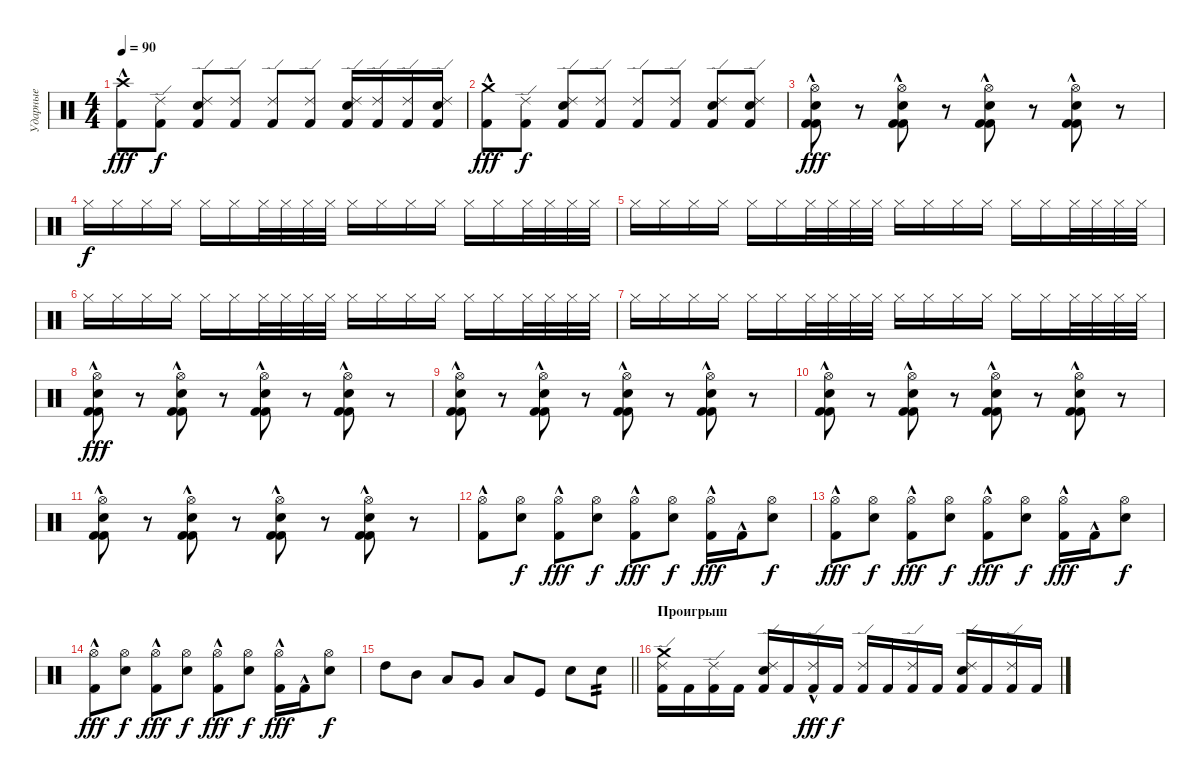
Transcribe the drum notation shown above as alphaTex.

\track ("Ударные" "Ударные") {instrument percussion}
\staff {score}
\articulation defaults
\ts (4 4)
\tempo 90
\clef neutral
\ks c
("Crash high (hit)" "Kick (hit) 2"{hac}).8{dy fff} ("Ride (edge) 2" "Kick (hit) 2").8{dy f} ("Ride (edge) 2" "Snare (hit) 2" "Kick (hit) 2").8 ("Ride (edge) 2" "Kick (hit) 2").8 ("Ride (edge) 2" "Kick (hit) 2").8 ("Ride (edge) 2" "Kick (hit) 2").8 ("Ride (edge) 2" "Snare (hit) 2" "Kick (hit) 2").16 ("Ride (edge) 2" "Kick (hit) 2").16 ("Ride (edge) 2" "Kick (hit) 2").16 ("Ride (edge) 2" "Snare (hit) 2" "Kick (hit) 2").16 |
("Crash medium (hit)" "Kick (hit) 2"{hac}).8{dy fff} ("Ride (edge) 2" "Kick (hit) 2").8{dy f} ("Ride (edge) 2" "Snare (hit) 2" "Kick (hit) 2").8 ("Ride (edge) 2" "Kick (hit) 2").8 ("Ride (edge) 2" "Kick (hit) 2").8 ("Ride (edge) 2" "Kick (hit) 2").8 ("Ride (edge) 2" "Snare (hit) 2" "Kick (hit) 2").8 ("Ride (edge) 2" "Snare (hit) 2" "Kick (hit) 2").8 |
("Hi-Hat (open)" "Kick (hit) 2"{hac} "Kick (hit) 2" "Snare (hit) 2").8{dy fff} r.8 ("Hi-Hat (open)" "Kick (hit) 2"{hac} "Kick (hit) 2" "Snare (hit) 2").8 r.8 ("Hi-Hat (open)" "Kick (hit) 2"{hac} "Kick (hit) 2" "Snare (hit) 2").8 r.8 ("Hi-Hat (open)" "Kick (hit) 2"{hac} "Kick (hit) 2" "Snare (hit) 2").8 r.8 |
"Hi-Hat (closed)".16{dy f} "Hi-Hat (closed)".16 "Hi-Hat (closed)".16 "Hi-Hat (closed)".16 "Hi-Hat (closed)".16 "Hi-Hat (closed)".16 "Hi-Hat (closed)".32 "Hi-Hat (closed)".32 "Hi-Hat (closed)".32 "Hi-Hat (closed)".32 "Hi-Hat (closed)".16 "Hi-Hat (closed)".16 "Hi-Hat (closed)".16 "Hi-Hat (closed)".16 "Hi-Hat (closed)".16 "Hi-Hat (closed)".16 "Hi-Hat (closed)".32 "Hi-Hat (closed)".32 "Hi-Hat (closed)".32 "Hi-Hat (closed)".32 |
"Hi-Hat (closed)".16 "Hi-Hat (closed)".16 "Hi-Hat (closed)".16 "Hi-Hat (closed)".16 "Hi-Hat (closed)".16 "Hi-Hat (closed)".16 "Hi-Hat (closed)".32 "Hi-Hat (closed)".32 "Hi-Hat (closed)".32 "Hi-Hat (closed)".32 "Hi-Hat (closed)".16 "Hi-Hat (closed)".16 "Hi-Hat (closed)".16 "Hi-Hat (closed)".16 "Hi-Hat (closed)".16 "Hi-Hat (closed)".16 "Hi-Hat (closed)".32 "Hi-Hat (closed)".32 "Hi-Hat (closed)".32 "Hi-Hat (closed)".32 |
"Hi-Hat (closed)".16 "Hi-Hat (closed)".16 "Hi-Hat (closed)".16 "Hi-Hat (closed)".16 "Hi-Hat (closed)".16 "Hi-Hat (closed)".16 "Hi-Hat (closed)".32 "Hi-Hat (closed)".32 "Hi-Hat (closed)".32 "Hi-Hat (closed)".32 "Hi-Hat (closed)".16 "Hi-Hat (closed)".16 "Hi-Hat (closed)".16 "Hi-Hat (closed)".16 "Hi-Hat (closed)".16 "Hi-Hat (closed)".16 "Hi-Hat (closed)".32 "Hi-Hat (closed)".32 "Hi-Hat (closed)".32 "Hi-Hat (closed)".32 |
"Hi-Hat (closed)".16 "Hi-Hat (closed)".16 "Hi-Hat (closed)".16 "Hi-Hat (closed)".16 "Hi-Hat (closed)".16 "Hi-Hat (closed)".16 "Hi-Hat (closed)".32 "Hi-Hat (closed)".32 "Hi-Hat (closed)".32 "Hi-Hat (closed)".32 "Hi-Hat (closed)".16 "Hi-Hat (closed)".16 "Hi-Hat (closed)".16 "Hi-Hat (closed)".16 "Hi-Hat (closed)".16 "Hi-Hat (closed)".16 "Hi-Hat (closed)".32 "Hi-Hat (closed)".32 "Hi-Hat (closed)".32 "Hi-Hat (closed)".32 |
("Hi-Hat (open)" "Kick (hit) 2"{hac} "Kick (hit) 2" "Snare (hit) 2").8{dy fff} r.8 ("Hi-Hat (open)" "Kick (hit) 2"{hac} "Kick (hit) 2" "Snare (hit) 2").8 r.8 ("Hi-Hat (open)" "Kick (hit) 2"{hac} "Kick (hit) 2" "Snare (hit) 2").8 r.8 ("Hi-Hat (open)" "Kick (hit) 2"{hac} "Kick (hit) 2" "Snare (hit) 2").8 r.8 |
("Hi-Hat (open)" "Kick (hit) 2"{hac} "Kick (hit) 2" "Snare (hit) 2").8 r.8 ("Hi-Hat (open)" "Kick (hit) 2"{hac} "Kick (hit) 2" "Snare (hit) 2").8 r.8 ("Hi-Hat (open)" "Kick (hit) 2"{hac} "Kick (hit) 2" "Snare (hit) 2").8 r.8 ("Hi-Hat (open)" "Kick (hit) 2"{hac} "Kick (hit) 2" "Snare (hit) 2").8 r.8 |
("Hi-Hat (open)" "Kick (hit) 2"{hac} "Kick (hit) 2" "Snare (hit) 2").8 r.8 ("Hi-Hat (open)" "Kick (hit) 2"{hac} "Kick (hit) 2" "Snare (hit) 2").8 r.8 ("Hi-Hat (open)" "Kick (hit) 2"{hac} "Kick (hit) 2" "Snare (hit) 2").8 r.8 ("Hi-Hat (open)" "Kick (hit) 2"{hac} "Kick (hit) 2" "Snare (hit) 2").8 r.8 |
("Hi-Hat (open)" "Kick (hit) 2"{hac} "Kick (hit) 2" "Snare (hit) 2").8 r.8 ("Hi-Hat (open)" "Kick (hit) 2"{hac} "Kick (hit) 2" "Snare (hit) 2").8 r.8 ("Hi-Hat (open)" "Kick (hit) 2"{hac} "Kick (hit) 2" "Snare (hit) 2").8 r.8 ("Hi-Hat (open)" "Kick (hit) 2"{hac} "Kick (hit) 2" "Snare (hit) 2").8 r.8 |
("Hi-Hat (open)" "Kick (hit) 2"{hac}).8 ("Hi-Hat (open)" "Snare (hit) 2").8{dy f} ("Hi-Hat (open)" "Kick (hit) 2"{hac}).8{dy fff} ("Hi-Hat (open)" "Snare (hit) 2").8{dy f} ("Hi-Hat (open)" "Kick (hit) 2"{hac}).8{dy fff} ("Hi-Hat (open)" "Snare (hit) 2").8{dy f} ("Hi-Hat (open)" "Kick (hit) 2"{hac}).16{dy fff} "Kick (hit) 2"{hac}.16 ("Hi-Hat (open)" "Snare (hit) 2").8{dy f} |
("Hi-Hat (open)" "Kick (hit) 2"{hac}).8{dy fff} ("Hi-Hat (open)" "Snare (hit) 2").8{dy f} ("Hi-Hat (open)" "Kick (hit) 2"{hac}).8{dy fff} ("Hi-Hat (open)" "Snare (hit) 2").8{dy f} ("Hi-Hat (open)" "Kick (hit) 2"{hac}).8{dy fff} ("Hi-Hat (open)" "Snare (hit) 2").8{dy f} ("Hi-Hat (open)" "Kick (hit) 2"{hac}).16{dy fff} "Kick (hit) 2"{hac}.16 ("Hi-Hat (open)" "Snare (hit) 2").8{dy f} |
("Hi-Hat (open)" "Kick (hit) 2"{hac}).8{dy fff} ("Hi-Hat (open)" "Snare (hit) 2").8{dy f} ("Hi-Hat (open)" "Kick (hit) 2"{hac}).8{dy fff} ("Hi-Hat (open)" "Snare (hit) 2").8{dy f} ("Hi-Hat (open)" "Kick (hit) 2"{hac}).8{dy fff} ("Hi-Hat (open)" "Snare (hit) 2").8{dy f} ("Hi-Hat (open)" "Kick (hit) 2"{hac}).16{dy fff} "Kick (hit) 2"{hac}.16 ("Hi-Hat (open)" "Snare (hit) 2").8{dy f} |
\barLineRight lightlight "High Tom (hit)".8 "Mid Tom (hit)".8 "Low Tom (hit)".8 "Very Low Tom (hit)".8 "Low Floor Tom (hit)".8 "Kick (hit)".8 "Snare (hit) 2".8 "Snare (hit) 2".8{tp 2}
|
\section ("" "Проигрыш")
("Ride (edge) 2" "Kick (hit) 2" "Crash medium (hit)").16 "Kick (hit) 2".16 ("Ride (edge) 2" "Kick (hit) 2").16 "Kick (hit) 2".16 ("Ride (edge) 2" "Snare (hit) 2" "Kick (hit) 2").16 "Kick (hit) 2".16 ("Ride (edge) 2" "Kick (hit) 2"{hac}).16{dy fff} "Kick (hit) 2".16{dy f} ("Ride (edge) 2" "Kick (hit) 2").16 "Kick (hit) 2".16 ("Ride (edge) 2" "Kick (hit) 2").16 "Kick (hit) 2".16 ("Ride (edge) 2" "Snare (hit) 2" "Kick (hit) 2").16 "Kick (hit) 2".16 ("Ride (edge) 2" "Kick (hit) 2").16 "Kick (hit) 2".16
